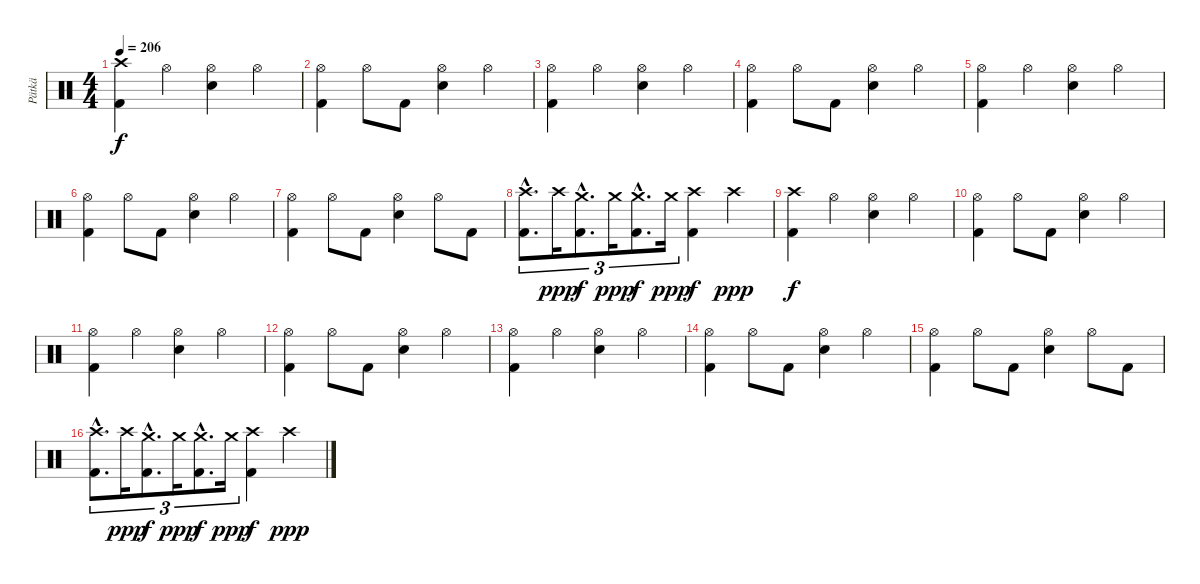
\track ("Pätkä" "Pätkä") {instrument percussion}
\staff {score}
\articulation defaults
\ts (4 4)
\tempo 206
\clef neutral
\ks c
("Crash high (hit)" "Kick (hit) 2").4{dy f} "Hi-Hat (open)".4 ("Hi-Hat (open)" "Electric Snare (hit)").4 "Hi-Hat (open)".4 |
("Hi-Hat (open)" "Kick (hit) 2").4 "Hi-Hat (open)".8 "Kick (hit) 2".8 ("Hi-Hat (open)" "Electric Snare (hit)").4 "Hi-Hat (open)".4 |
("Hi-Hat (open)" "Kick (hit) 2").4 "Hi-Hat (open)".4 ("Hi-Hat (open)" "Electric Snare (hit)").4 "Hi-Hat (open)".4 |
("Hi-Hat (open)" "Kick (hit) 2").4 "Hi-Hat (open)".8 "Kick (hit) 2".8 ("Hi-Hat (open)" "Electric Snare (hit)").4 "Hi-Hat (open)".4 |
("Hi-Hat (open)" "Kick (hit) 2").4 "Hi-Hat (open)".4 ("Hi-Hat (open)" "Electric Snare (hit)").4 "Hi-Hat (open)".4 |
("Hi-Hat (open)" "Kick (hit) 2").4 "Hi-Hat (open)".8 "Kick (hit) 2".8 ("Hi-Hat (open)" "Electric Snare (hit)").4 "Hi-Hat (open)".4 |
("Hi-Hat (open)" "Kick (hit) 2").4 "Hi-Hat (open)".8 "Kick (hit) 2".8 ("Hi-Hat (open)" "Electric Snare (hit)").4 "Hi-Hat (open)".8 "Kick (hit) 2".8 |
("Crash high (hit)"{hac} "Kick (hit) 2"{hac}).8{d tu (3 2)} "Crash high (hit)".16{tu (3 2) dy ppp} ("Crash medium (hit)"{hac} "Kick (hit) 2"{hac}).8{d tu (3 2) dy f} "Crash medium (hit)".16{tu (3 2) dy ppp} ("Crash medium (hit)"{hac} "Kick (hit) 2"{hac}).8{d tu (3 2) dy f} "Crash medium (hit)".16{tu (3 2) dy ppp} ("Crash high (hit)" "Kick (hit) 2").4{dy f} "Crash high (hit)".4{dy ppp} |
("Crash high (hit)" "Kick (hit) 2").4{dy f} "Hi-Hat (open)".4 ("Hi-Hat (open)" "Electric Snare (hit)").4 "Hi-Hat (open)".4 |
("Hi-Hat (open)" "Kick (hit) 2").4 "Hi-Hat (open)".8 "Kick (hit) 2".8 ("Hi-Hat (open)" "Electric Snare (hit)").4 "Hi-Hat (open)".4 |
("Hi-Hat (open)" "Kick (hit) 2").4 "Hi-Hat (open)".4 ("Hi-Hat (open)" "Electric Snare (hit)").4 "Hi-Hat (open)".4 |
("Hi-Hat (open)" "Kick (hit) 2").4 "Hi-Hat (open)".8 "Kick (hit) 2".8 ("Hi-Hat (open)" "Electric Snare (hit)").4 "Hi-Hat (open)".4 |
("Hi-Hat (open)" "Kick (hit) 2").4 "Hi-Hat (open)".4 ("Hi-Hat (open)" "Electric Snare (hit)").4 "Hi-Hat (open)".4 |
("Hi-Hat (open)" "Kick (hit) 2").4 "Hi-Hat (open)".8 "Kick (hit) 2".8 ("Hi-Hat (open)" "Electric Snare (hit)").4 "Hi-Hat (open)".4 |
("Hi-Hat (open)" "Kick (hit) 2").4 "Hi-Hat (open)".8 "Kick (hit) 2".8 ("Hi-Hat (open)" "Electric Snare (hit)").4 "Hi-Hat (open)".8 "Kick (hit) 2".8 |
("Crash high (hit)"{hac} "Kick (hit) 2"{hac}).8{d tu (3 2)} "Crash high (hit)".16{tu (3 2) dy ppp} ("Crash medium (hit)"{hac} "Kick (hit) 2"{hac}).8{d tu (3 2) dy f} "Crash medium (hit)".16{tu (3 2) dy ppp} ("Crash medium (hit)"{hac} "Kick (hit) 2"{hac}).8{d tu (3 2) dy f} "Crash medium (hit)".16{tu (3 2) dy ppp} ("Crash high (hit)" "Kick (hit) 2").4{dy f} "Crash high (hit)".4{dy ppp}
